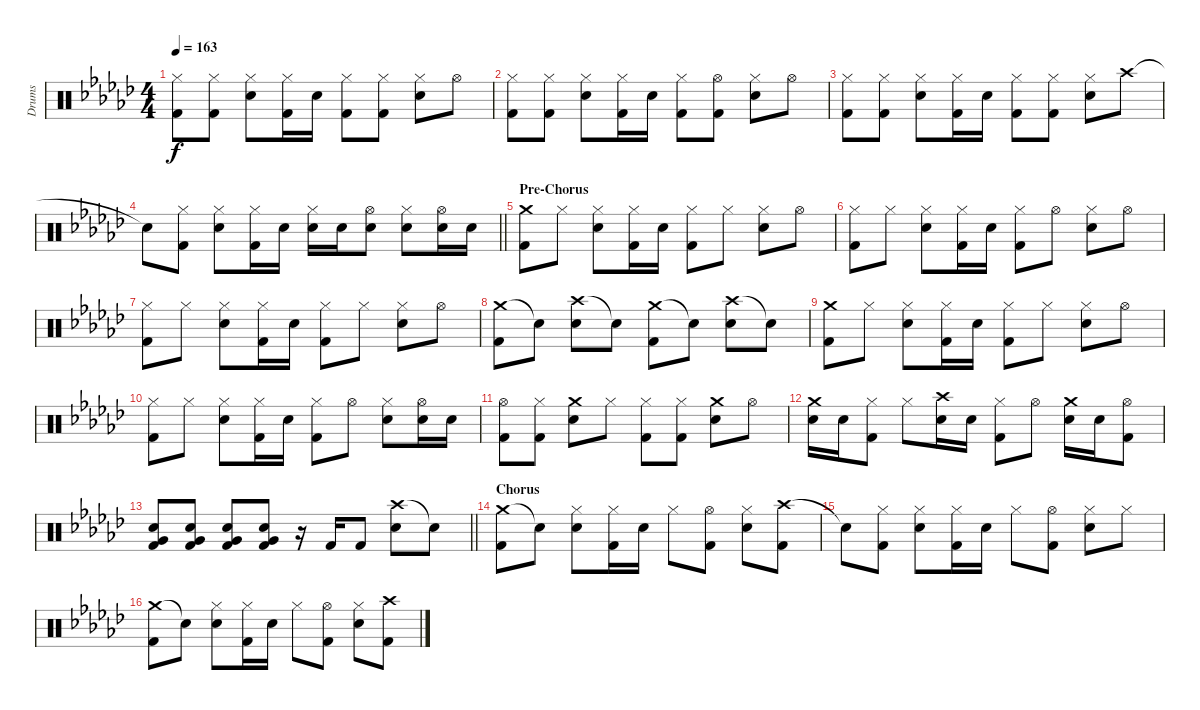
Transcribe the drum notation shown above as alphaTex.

\track ("Drums" "Drums") {mute instrument percussion}
\staff {score}
\articulation defaults
\ts (4 4)
\tempo 163
\clef neutral
\ks gb
("Hi-Hat (closed)" "Kick (hit) 2").8{dy f} ("Hi-Hat (closed)" "Kick (hit) 2").8 ("Hi-Hat (closed)" "Snare (hit) 2").8 ("Hi-Hat (closed)" "Kick (hit) 2").16 "Snare (hit) 2".16 ("Hi-Hat (closed)" "Kick (hit) 2").8 ("Hi-Hat (closed)" "Kick (hit) 2").8 ("Hi-Hat (closed)" "Snare (hit) 2").8 "Hi-Hat (open)".8 |
("Hi-Hat (closed)" "Kick (hit) 2").8 ("Hi-Hat (closed)" "Kick (hit) 2").8 ("Hi-Hat (closed)" "Snare (hit) 2").8 ("Hi-Hat (closed)" "Kick (hit) 2").16 "Snare (hit) 2".16 ("Hi-Hat (closed)" "Kick (hit) 2").8 ("Hi-Hat (open)" "Kick (hit) 2").8 ("Hi-Hat (closed)" "Snare (hit) 2").8 "Hi-Hat (open)".8 |
("Hi-Hat (closed)" "Kick (hit) 2").8 ("Hi-Hat (closed)" "Kick (hit) 2").8 ("Hi-Hat (closed)" "Snare (hit) 2").8 ("Hi-Hat (closed)" "Kick (hit) 2").16 "Snare (hit) 2".16 ("Hi-Hat (closed)" "Kick (hit) 2").8 ("Hi-Hat (closed)" "Kick (hit) 2").8 ("Hi-Hat (closed)" "Snare (hit) 2").8 "Crash high (hit)".8 |
\barLineRight lightlight "Snare (hit)"{t}.8
("Hi-Hat (closed)" "Kick (hit) 2").8 ("Hi-Hat (closed)" "Snare (hit) 2").8 ("Hi-Hat (closed)" "Kick (hit) 2").16 "Snare (hit) 2".16 ("Hi-Hat (closed)" "Snare (hit) 2").16 "Snare (hit) 2".16 ("Hi-Hat (open)" "Snare (hit) 2").8 ("Hi-Hat (closed)" "Snare (hit) 2").8 ("Hi-Hat (open)" "Snare (hit) 2").16 "Snare (hit) 2".16 |
\section ("" "Pre-Chorus")
("Crash medium (hit)" "Kick (hit) 2").8 "Hi-Hat (closed)".8 ("Hi-Hat (closed)" "Snare (hit) 2").8 ("Hi-Hat (closed)" "Kick (hit) 2").16 "Snare (hit) 2".16 ("Hi-Hat (closed)" "Kick (hit) 2").8 "Hi-Hat (closed)".8 ("Hi-Hat (closed)" "Snare (hit) 2").8 "Hi-Hat (open)".8 |
("Hi-Hat (closed)" "Kick (hit) 2").8 "Hi-Hat (closed)".8 ("Hi-Hat (closed)" "Snare (hit) 2").8 ("Hi-Hat (closed)" "Kick (hit) 2").16 "Snare (hit) 2".16 ("Hi-Hat (closed)" "Kick (hit) 2").8 "Hi-Hat (open)".8 ("Hi-Hat (closed)" "Snare (hit) 2").8 "Hi-Hat (open)".8 |
("Hi-Hat (closed)" "Kick (hit) 2").8 "Hi-Hat (closed)".8 ("Hi-Hat (closed)" "Snare (hit) 2").8 ("Hi-Hat (closed)" "Kick (hit) 2").16 "Snare (hit) 2".16 ("Hi-Hat (closed)" "Kick (hit) 2").8 "Hi-Hat (closed)".8 ("Hi-Hat (closed)" "Snare (hit) 2").8 "Hi-Hat (open)".8 |
("Crash medium (hit)" "Kick (hit) 2").8 "Snare (hit)"{t}.8 ("Crash high (hit)" "Snare (hit) 2").8 "Snare (hit)"{t}.8 ("Crash medium (hit)" "Kick (hit) 2").8 "Snare (hit)"{t}.8 ("Crash high (hit)" "Snare (hit) 2").8 "Snare (hit)"{t}.8 |
("Crash medium (hit)" "Kick (hit) 2").8 "Hi-Hat (closed)".8 ("Hi-Hat (closed)" "Snare (hit) 2").8 ("Hi-Hat (closed)" "Kick (hit) 2").16 "Snare (hit) 2".16 ("Hi-Hat (closed)" "Kick (hit) 2").8 "Hi-Hat (closed)".8 ("Hi-Hat (closed)" "Snare (hit) 2").8 "Hi-Hat (open)".8 |
("Hi-Hat (closed)" "Kick (hit) 2").8 "Hi-Hat (closed)".8 ("Hi-Hat (closed)" "Snare (hit) 2").8 ("Hi-Hat (closed)" "Kick (hit) 2").16 "Snare (hit) 2".16 ("Hi-Hat (closed)" "Kick (hit) 2").8 "Hi-Hat (open)".8 ("Hi-Hat (closed)" "Snare (hit) 2").8 ("Hi-Hat (open)" "Snare (hit) 2").16 "Snare (hit) 2".16 |
("Hi-Hat (open)" "Kick (hit) 2").8 ("Hi-Hat (closed)" "Kick (hit) 2").8 ("Crash medium (hit)" "Snare (hit) 2").8 "Hi-Hat (closed)".8 ("Hi-Hat (closed)" "Kick (hit) 2").8 ("Hi-Hat (closed)" "Kick (hit) 2").8 ("Crash medium (hit)" "Snare (hit) 2").8 "Hi-Hat (open)".8 |
("Crash medium (hit)" "Snare (hit) 2").16 "Snare (hit) 2".16 ("Hi-Hat (closed)" "Kick (hit) 2").8 "Hi-Hat (closed)".8 ("Crash high (hit)" "Snare (hit) 2").16 "Snare (hit) 2".16 ("Hi-Hat (closed)" "Kick (hit) 2").8 "Hi-Hat (open)".8 ("Crash medium (hit)" "Snare (hit) 2").16 "Snare (hit) 2".16 ("Hi-Hat (open)" "Kick (hit) 2").8 |
\barLineRight lightlight
("Snare (hit) 2" "Very Low Tom (hit)" "Kick (hit) 2").8 ("Snare (hit) 2" "Very Low Tom (hit)" "Kick (hit) 2").8 ("Snare (hit) 2" "Very Low Tom (hit)" "Kick (hit) 2").8 ("Snare (hit) 2" "Very Low Tom (hit)" "Kick (hit) 2").8 r.16 "Kick (hit) 2".16 "Kick (hit) 2".8 ("Crash high (hit)" "Snare (hit) 2").8 "Snare (hit)"{t}.8 |
\section ("" "Chorus")
("Crash medium (hit)" "Kick (hit) 2").8 "Snare (hit)"{t}.8 ("Hi-Hat (closed)" "Snare (hit) 2").8 ("Hi-Hat (closed)" "Kick (hit) 2").16 "Snare (hit) 2".16 "Hi-Hat (closed)".8 ("Hi-Hat (open)" "Kick (hit) 2").8 ("Hi-Hat (closed)" "Snare (hit) 2").8 ("Crash high (hit)" "Kick (hit) 2").8 |
"Snare (hit)"{t}.8 ("Hi-Hat (closed)" "Kick (hit) 2").8 ("Hi-Hat (closed)" "Snare (hit) 2").8 ("Hi-Hat (closed)" "Kick (hit) 2").16 "Snare (hit) 2".16 "Hi-Hat (closed)".8 ("Hi-Hat (open)" "Kick (hit) 2").8 ("Hi-Hat (closed)" "Snare (hit) 2").8 "Hi-Hat (closed)".8 |
("Crash medium (hit)" "Kick (hit) 2").8 "Snare (hit)"{t}.8 ("Hi-Hat (closed)" "Snare (hit) 2").8 ("Hi-Hat (closed)" "Kick (hit) 2").16 "Snare (hit) 2".16 "Hi-Hat (closed)".8 ("Hi-Hat (open)" "Kick (hit) 2").8 ("Hi-Hat (closed)" "Snare (hit) 2").8 ("Crash high (hit)" "Kick (hit) 2").8
